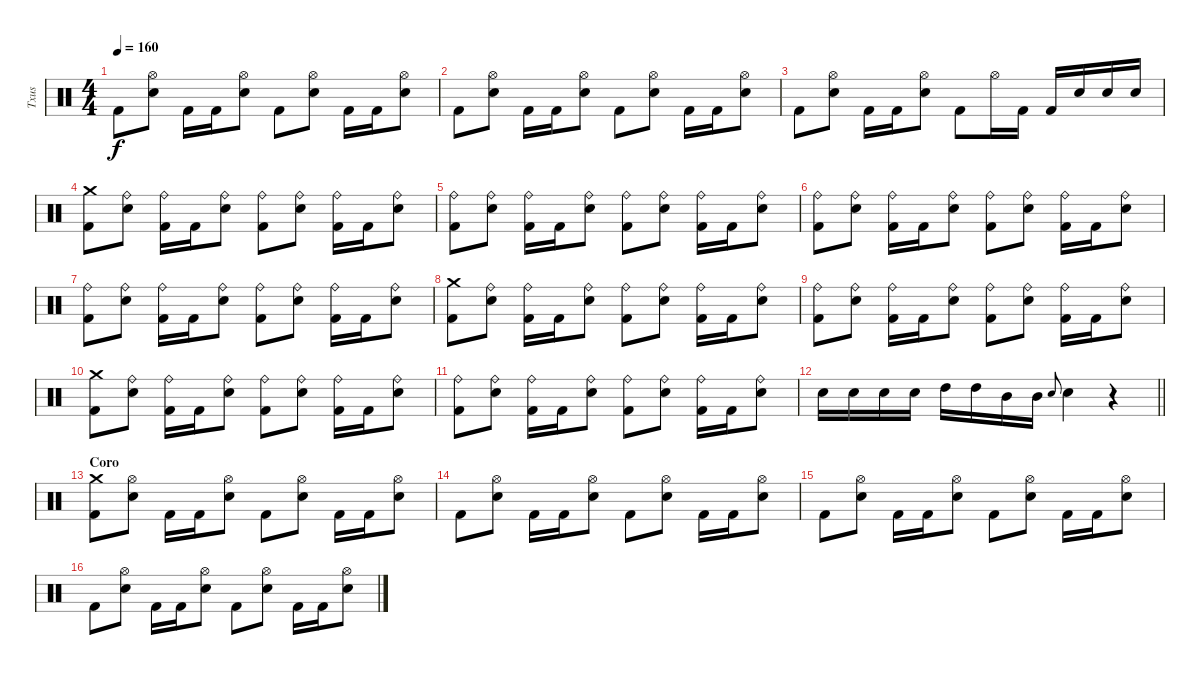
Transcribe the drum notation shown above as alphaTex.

\track ("Txus" "Txus") {instrument percussion}
\staff {score}
\articulation defaults
\ts (4 4)
\tempo 160
\clef neutral
\ks c "Kick (hit) 2".8{dy f}
("Hi-Hat (open)" "Snare (hit) 2").8 "Kick (hit) 2".16 "Kick (hit) 2".16 ("Hi-Hat (open)" "Snare (hit) 2").8 "Kick (hit) 2".8 ("Hi-Hat (open)" "Snare (hit) 2").8 "Kick (hit) 2".16 "Kick (hit) 2".16 ("Hi-Hat (open)" "Snare (hit) 2").8 |
"Kick (hit) 2".8 ("Hi-Hat (open)" "Snare (hit) 2").8 "Kick (hit) 2".16 "Kick (hit) 2".16 ("Hi-Hat (open)" "Snare (hit) 2").8 "Kick (hit) 2".8 ("Hi-Hat (open)" "Snare (hit) 2").8 "Kick (hit) 2".16 "Kick (hit) 2".16 ("Hi-Hat (open)" "Snare (hit) 2").8 |
"Kick (hit) 2".8 ("Hi-Hat (open)" "Snare (hit) 2").8 "Kick (hit) 2".16 "Kick (hit) 2".16 ("Hi-Hat (open)" "Snare (hit) 2").8 "Kick (hit) 2".8 "Hi-Hat (open)".16 "Kick (hit) 2".16 "Kick (hit) 2".16 "Snare (hit) 2".16 "Snare (hit) 2".16 "Snare (hit) 2".16 |
("Crash medium (hit)" "Kick (hit) 2").8 ("Ride (bell)" "Snare (hit) 2").8 ("Ride (bell)" "Kick (hit) 2").16 "Kick (hit) 2".16 ("Ride (bell)" "Snare (hit) 2").8 ("Ride (bell)" "Kick (hit) 2").8 ("Ride (bell)" "Snare (hit) 2").8 ("Ride (bell)" "Kick (hit) 2").16 "Kick (hit) 2".16 ("Ride (bell)" "Snare (hit) 2").8 |
("Ride (bell)" "Kick (hit) 2").8 ("Ride (bell)" "Snare (hit) 2").8 ("Ride (bell)" "Kick (hit) 2").16 "Kick (hit) 2".16 ("Ride (bell)" "Snare (hit) 2").8 ("Ride (bell)" "Kick (hit) 2").8 ("Ride (bell)" "Snare (hit) 2").8 ("Ride (bell)" "Kick (hit) 2").16 "Kick (hit) 2".16 ("Ride (bell)" "Snare (hit) 2").8 |
("Ride (bell)" "Kick (hit) 2").8 ("Ride (bell)" "Snare (hit) 2").8 ("Ride (bell)" "Kick (hit) 2").16 "Kick (hit) 2".16 ("Ride (bell)" "Snare (hit) 2").8 ("Ride (bell)" "Kick (hit) 2").8 ("Ride (bell)" "Snare (hit) 2").8 ("Ride (bell)" "Kick (hit) 2").16 "Kick (hit) 2".16 ("Ride (bell)" "Snare (hit) 2").8 |
("Ride (bell)" "Kick (hit) 2").8 ("Ride (bell)" "Snare (hit) 2").8 ("Ride (bell)" "Kick (hit) 2").16 "Kick (hit) 2".16 ("Ride (bell)" "Snare (hit) 2").8 ("Ride (bell)" "Kick (hit) 2").8 ("Ride (bell)" "Snare (hit) 2").8 ("Ride (bell)" "Kick (hit) 2").16 "Kick (hit) 2".16 ("Ride (bell)" "Snare (hit) 2").8 |
("Crash medium (hit)" "Kick (hit) 2").8 ("Ride (bell)" "Snare (hit) 2").8 ("Ride (bell)" "Kick (hit) 2").16 "Kick (hit) 2".16 ("Ride (bell)" "Snare (hit) 2").8 ("Ride (bell)" "Kick (hit) 2").8 ("Ride (bell)" "Snare (hit) 2").8 ("Ride (bell)" "Kick (hit) 2").16 "Kick (hit) 2".16 ("Ride (bell)" "Snare (hit) 2").8 |
("Ride (bell)" "Kick (hit) 2").8 ("Ride (bell)" "Snare (hit) 2").8 ("Ride (bell)" "Kick (hit) 2").16 "Kick (hit) 2".16 ("Ride (bell)" "Snare (hit) 2").8 ("Ride (bell)" "Kick (hit) 2").8 ("Ride (bell)" "Snare (hit) 2").8 ("Ride (bell)" "Kick (hit) 2").16 "Kick (hit) 2".16 ("Ride (bell)" "Snare (hit) 2").8 |
("Crash medium (hit)" "Kick (hit) 2").8 ("Ride (bell)" "Snare (hit) 2").8 ("Ride (bell)" "Kick (hit) 2").16 "Kick (hit) 2".16 ("Ride (bell)" "Snare (hit) 2").8 ("Ride (bell)" "Kick (hit) 2").8 ("Ride (bell)" "Snare (hit) 2").8 ("Ride (bell)" "Kick (hit) 2").16 "Kick (hit) 2".16 ("Ride (bell)" "Snare (hit) 2").8 |
("Ride (bell)" "Kick (hit) 2").8 ("Ride (bell)" "Snare (hit) 2").8 ("Ride (bell)" "Kick (hit) 2").16 "Kick (hit) 2".16 ("Ride (bell)" "Snare (hit) 2").8 ("Ride (bell)" "Kick (hit) 2").8 ("Ride (bell)" "Snare (hit) 2").8 ("Ride (bell)" "Kick (hit) 2").16 "Kick (hit) 2".16 ("Ride (bell)" "Snare (hit) 2").8 |
\barLineRight lightlight "Snare (hit) 2".16 "Snare (hit) 2".16 "Snare (hit) 2".16 "Snare (hit) 2".16 "High Tom (hit)".16 "High Tom (hit)".16 "Mid Tom (hit)".16 "Mid Tom (hit)".16 "Snare (hit) 2".8{gr onbeat} "Snare (hit) 2".4
r.4 |
\section ("" "Coro")
("Crash medium (hit)" "Kick (hit) 2").8 ("Hi-Hat (open)" "Snare (hit) 2").8 "Kick (hit) 2".16 "Kick (hit) 2".16 ("Hi-Hat (open)" "Snare (hit) 2").8 "Kick (hit) 2".8 ("Hi-Hat (open)" "Snare (hit) 2").8 "Kick (hit) 2".16 "Kick (hit) 2".16 ("Hi-Hat (open)" "Snare (hit) 2").8 |
"Kick (hit) 2".8 ("Hi-Hat (open)" "Snare (hit) 2").8 "Kick (hit) 2".16 "Kick (hit) 2".16 ("Hi-Hat (open)" "Snare (hit) 2").8 "Kick (hit) 2".8 ("Hi-Hat (open)" "Snare (hit) 2").8 "Kick (hit) 2".16 "Kick (hit) 2".16 ("Hi-Hat (open)" "Snare (hit) 2").8 |
"Kick (hit) 2".8 ("Hi-Hat (open)" "Snare (hit) 2").8 "Kick (hit) 2".16 "Kick (hit) 2".16 ("Hi-Hat (open)" "Snare (hit) 2").8 "Kick (hit) 2".8 ("Hi-Hat (open)" "Snare (hit) 2").8 "Kick (hit) 2".16 "Kick (hit) 2".16 ("Hi-Hat (open)" "Snare (hit) 2").8 |
"Kick (hit) 2".8 ("Hi-Hat (open)" "Snare (hit) 2").8 "Kick (hit) 2".16 "Kick (hit) 2".16 ("Hi-Hat (open)" "Snare (hit) 2").8 "Kick (hit) 2".8 ("Hi-Hat (open)" "Snare (hit) 2").8 "Kick (hit) 2".16 "Kick (hit) 2".16 ("Hi-Hat (open)" "Snare (hit) 2").8
